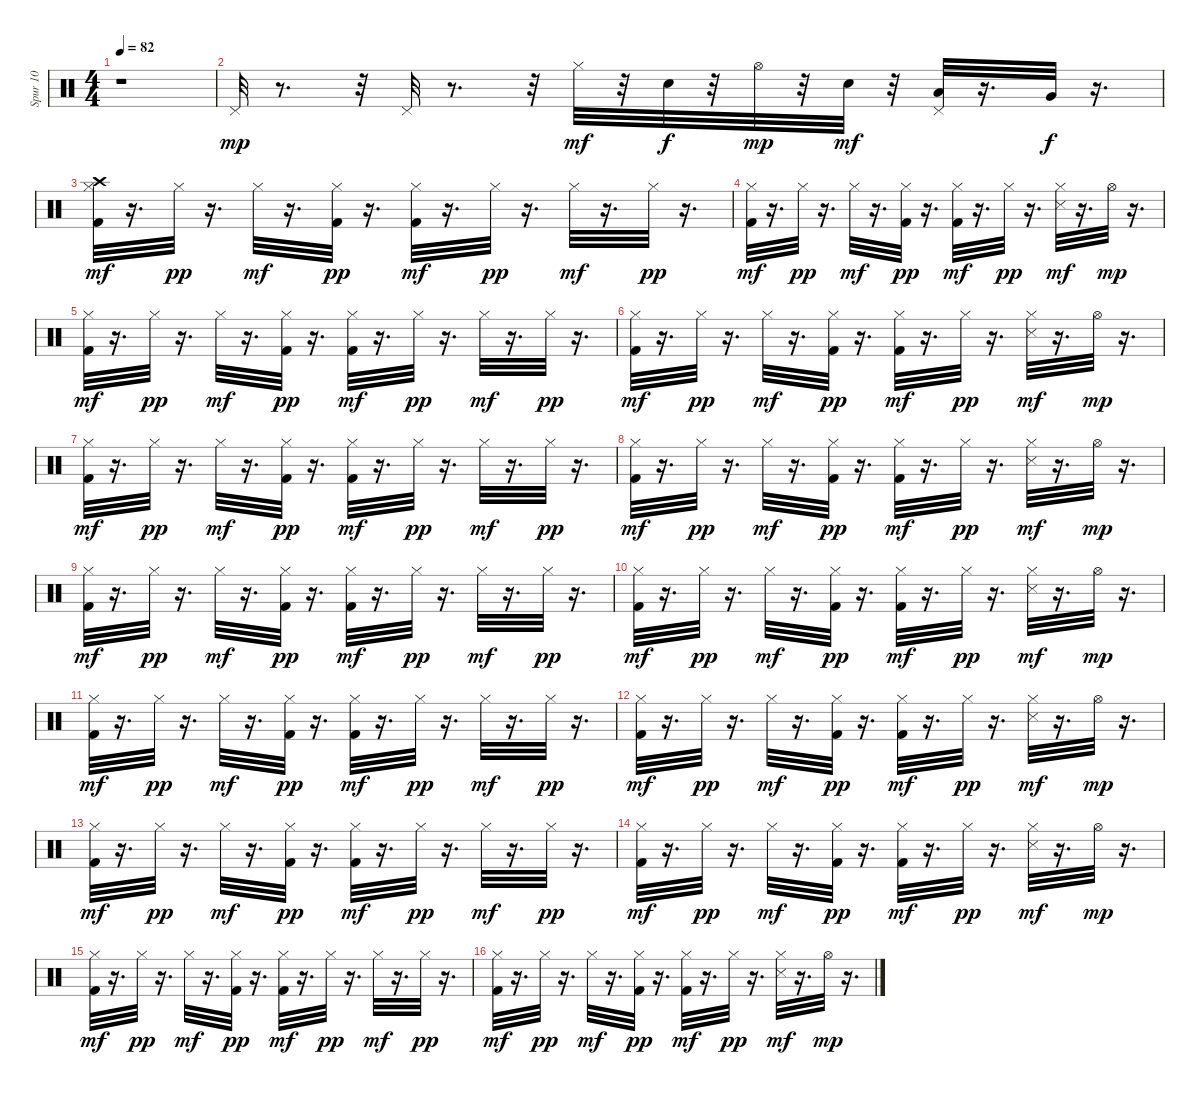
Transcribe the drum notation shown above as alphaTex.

\track ("Spur 10" "Spur 10") {instrument percussion}
\staff {score}
\articulation defaults
\ts (4 4)
\tempo 82
\clef neutral
\ks c
r.1{dy mp} |
"Pedal Hi-Hat (hit)".32 r.8{d} r.32 "Pedal Hi-Hat (hit)".32 r.8{d} r.32 "Hi-Hat (closed)".32{dy mf} r.32 "Electric Snare (hit)".32{dy f} r.32 "Hi-Hat (open)".32{dy mp} r.32 "Electric Snare (hit)".32{dy mf} r.32 ("Pedal Hi-Hat (hit)" "Low Tom (hit)").32 r.16{d} "Very Low Tom (hit)".32{dy f} r.16{d} |
("Crash high (hit)" "Kick (hit) 2" "Hi-Hat (closed)").32{dy mf} r.16{d} "Hi-Hat (closed)".32{dy pp} r.16{d} "Hi-Hat (closed)".32{dy mf} r.16{d} ("Kick (hit) 2" "Hi-Hat (closed)").32{dy pp} r.16{d} ("Kick (hit) 2" "Hi-Hat (closed)").32{dy mf} r.16{d} "Hi-Hat (closed)".32{dy pp} r.16{d} "Hi-Hat (closed)".32{dy mf} r.16{d} "Hi-Hat (closed)".32{dy pp} r.16{d} |
("Kick (hit) 2" "Hi-Hat (closed)").32{dy mf} r.16{d} "Hi-Hat (closed)".32{dy pp} r.16{d} "Hi-Hat (closed)".32{dy mf} r.16{d} ("Kick (hit) 2" "Hi-Hat (closed)").32{dy pp} r.16{d} ("Kick (hit) 2" "Hi-Hat (closed)").32{dy mf} r.16{d} "Hi-Hat (closed)".32{dy pp} r.16{d} ("Snare (side stick) 3" "Hi-Hat (closed)").32{dy mf} r.16{d} "Hi-Hat (open)".32{dy mp} r.16{d} |
("Kick (hit) 2" "Hi-Hat (closed)").32{dy mf} r.16{d} "Hi-Hat (closed)".32{dy pp} r.16{d} "Hi-Hat (closed)".32{dy mf} r.16{d} ("Kick (hit) 2" "Hi-Hat (closed)").32{dy pp} r.16{d} ("Kick (hit) 2" "Hi-Hat (closed)").32{dy mf} r.16{d} "Hi-Hat (closed)".32{dy pp} r.16{d} "Hi-Hat (closed)".32{dy mf} r.16{d} "Hi-Hat (closed)".32{dy pp} r.16{d} |
("Kick (hit) 2" "Hi-Hat (closed)").32{dy mf} r.16{d} "Hi-Hat (closed)".32{dy pp} r.16{d} "Hi-Hat (closed)".32{dy mf} r.16{d} ("Kick (hit) 2" "Hi-Hat (closed)").32{dy pp} r.16{d} ("Kick (hit) 2" "Hi-Hat (closed)").32{dy mf} r.16{d} "Hi-Hat (closed)".32{dy pp} r.16{d} ("Snare (side stick) 3" "Hi-Hat (closed)").32{dy mf} r.16{d} "Hi-Hat (open)".32{dy mp} r.16{d} |
("Kick (hit) 2" "Hi-Hat (closed)").32{dy mf} r.16{d} "Hi-Hat (closed)".32{dy pp} r.16{d} "Hi-Hat (closed)".32{dy mf} r.16{d} ("Kick (hit) 2" "Hi-Hat (closed)").32{dy pp} r.16{d} ("Kick (hit) 2" "Hi-Hat (closed)").32{dy mf} r.16{d} "Hi-Hat (closed)".32{dy pp} r.16{d} "Hi-Hat (closed)".32{dy mf} r.16{d} "Hi-Hat (closed)".32{dy pp} r.16{d} |
("Kick (hit) 2" "Hi-Hat (closed)").32{dy mf} r.16{d} "Hi-Hat (closed)".32{dy pp} r.16{d} "Hi-Hat (closed)".32{dy mf} r.16{d} ("Kick (hit) 2" "Hi-Hat (closed)").32{dy pp} r.16{d} ("Kick (hit) 2" "Hi-Hat (closed)").32{dy mf} r.16{d} "Hi-Hat (closed)".32{dy pp} r.16{d} ("Snare (side stick) 3" "Hi-Hat (closed)").32{dy mf} r.16{d} "Hi-Hat (open)".32{dy mp} r.16{d} |
("Kick (hit) 2" "Hi-Hat (closed)").32{dy mf} r.16{d} "Hi-Hat (closed)".32{dy pp} r.16{d} "Hi-Hat (closed)".32{dy mf} r.16{d} ("Kick (hit) 2" "Hi-Hat (closed)").32{dy pp} r.16{d} ("Kick (hit) 2" "Hi-Hat (closed)").32{dy mf} r.16{d} "Hi-Hat (closed)".32{dy pp} r.16{d} "Hi-Hat (closed)".32{dy mf} r.16{d} "Hi-Hat (closed)".32{dy pp} r.16{d} |
("Kick (hit) 2" "Hi-Hat (closed)").32{dy mf} r.16{d} "Hi-Hat (closed)".32{dy pp} r.16{d} "Hi-Hat (closed)".32{dy mf} r.16{d} ("Kick (hit) 2" "Hi-Hat (closed)").32{dy pp} r.16{d} ("Kick (hit) 2" "Hi-Hat (closed)").32{dy mf} r.16{d} "Hi-Hat (closed)".32{dy pp} r.16{d} ("Snare (side stick) 3" "Hi-Hat (closed)").32{dy mf} r.16{d} "Hi-Hat (open)".32{dy mp} r.16{d} |
("Kick (hit) 2" "Hi-Hat (closed)").32{dy mf} r.16{d} "Hi-Hat (closed)".32{dy pp} r.16{d} "Hi-Hat (closed)".32{dy mf} r.16{d} ("Kick (hit) 2" "Hi-Hat (closed)").32{dy pp} r.16{d} ("Kick (hit) 2" "Hi-Hat (closed)").32{dy mf} r.16{d} "Hi-Hat (closed)".32{dy pp} r.16{d} "Hi-Hat (closed)".32{dy mf} r.16{d} "Hi-Hat (closed)".32{dy pp} r.16{d} |
("Kick (hit) 2" "Hi-Hat (closed)").32{dy mf} r.16{d} "Hi-Hat (closed)".32{dy pp} r.16{d} "Hi-Hat (closed)".32{dy mf} r.16{d} ("Kick (hit) 2" "Hi-Hat (closed)").32{dy pp} r.16{d} ("Kick (hit) 2" "Hi-Hat (closed)").32{dy mf} r.16{d} "Hi-Hat (closed)".32{dy pp} r.16{d} ("Snare (side stick) 3" "Hi-Hat (closed)").32{dy mf} r.16{d} "Hi-Hat (open)".32{dy mp} r.16{d} |
("Kick (hit) 2" "Hi-Hat (closed)").32{dy mf} r.16{d} "Hi-Hat (closed)".32{dy pp} r.16{d} "Hi-Hat (closed)".32{dy mf} r.16{d} ("Kick (hit) 2" "Hi-Hat (closed)").32{dy pp} r.16{d} ("Kick (hit) 2" "Hi-Hat (closed)").32{dy mf} r.16{d} "Hi-Hat (closed)".32{dy pp} r.16{d} "Hi-Hat (closed)".32{dy mf} r.16{d} "Hi-Hat (closed)".32{dy pp} r.16{d} |
("Kick (hit) 2" "Hi-Hat (closed)").32{dy mf} r.16{d} "Hi-Hat (closed)".32{dy pp} r.16{d} "Hi-Hat (closed)".32{dy mf} r.16{d} ("Kick (hit) 2" "Hi-Hat (closed)").32{dy pp} r.16{d} ("Kick (hit) 2" "Hi-Hat (closed)").32{dy mf} r.16{d} "Hi-Hat (closed)".32{dy pp} r.16{d} ("Snare (side stick) 3" "Hi-Hat (closed)").32{dy mf} r.16{d} "Hi-Hat (open)".32{dy mp} r.16{d} |
("Kick (hit) 2" "Hi-Hat (closed)").32{dy mf} r.16{d} "Hi-Hat (closed)".32{dy pp} r.16{d} "Hi-Hat (closed)".32{dy mf} r.16{d} ("Kick (hit) 2" "Hi-Hat (closed)").32{dy pp} r.16{d} ("Kick (hit) 2" "Hi-Hat (closed)").32{dy mf} r.16{d} "Hi-Hat (closed)".32{dy pp} r.16{d} "Hi-Hat (closed)".32{dy mf} r.16{d} "Hi-Hat (closed)".32{dy pp} r.16{d} |
("Kick (hit) 2" "Hi-Hat (closed)").32{dy mf} r.16{d} "Hi-Hat (closed)".32{dy pp} r.16{d} "Hi-Hat (closed)".32{dy mf} r.16{d} ("Kick (hit) 2" "Hi-Hat (closed)").32{dy pp} r.16{d} ("Kick (hit) 2" "Hi-Hat (closed)").32{dy mf} r.16{d} "Hi-Hat (closed)".32{dy pp} r.16{d} ("Snare (side stick) 3" "Hi-Hat (closed)").32{dy mf} r.16{d} "Hi-Hat (open)".32{dy mp} r.16{d}
